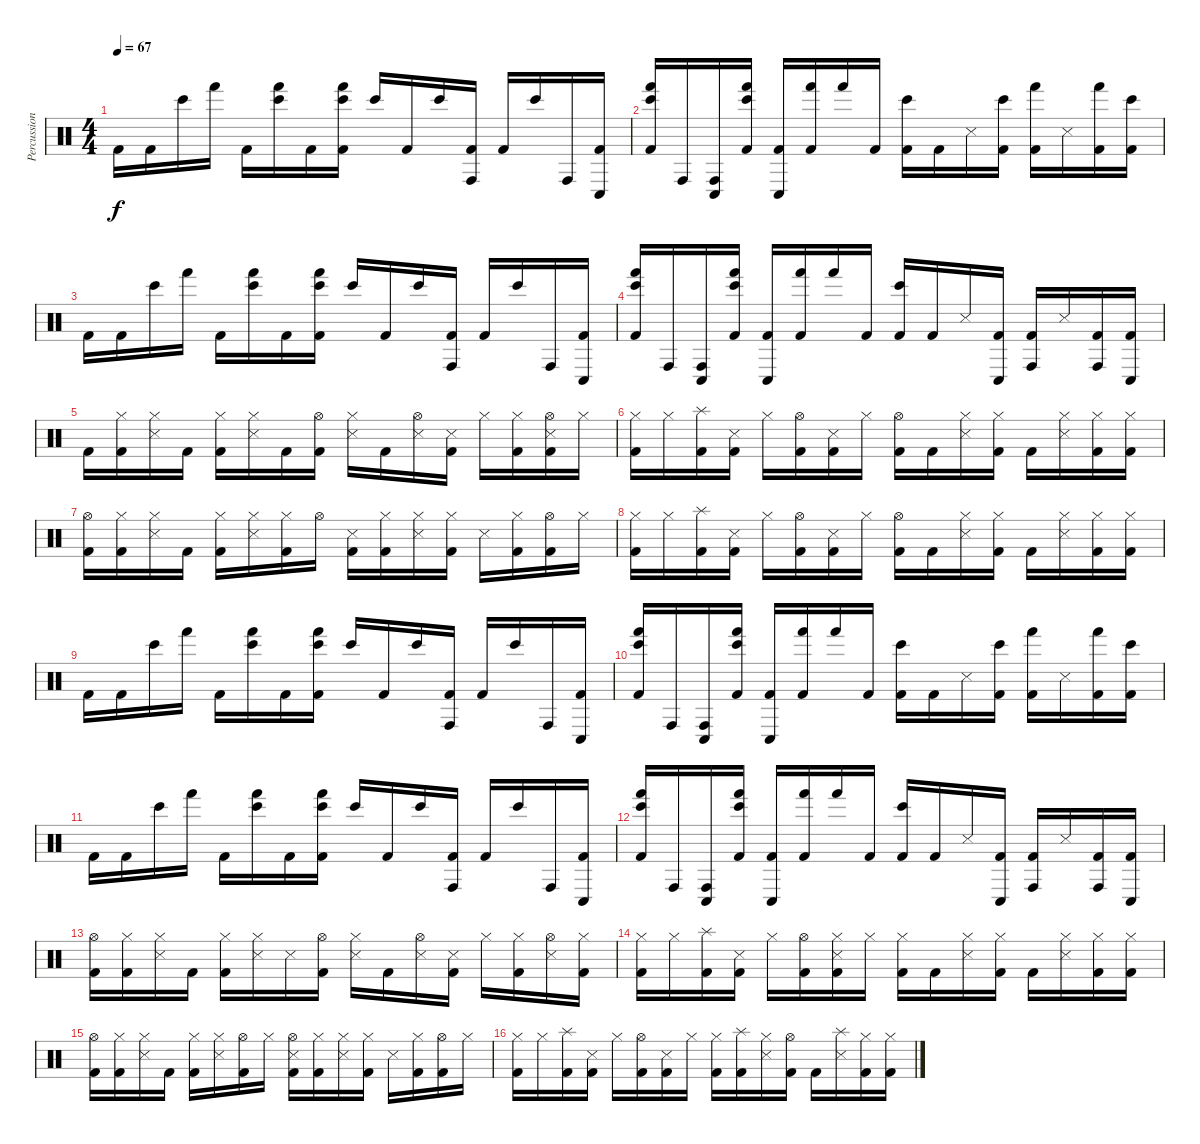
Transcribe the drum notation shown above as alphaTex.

\track ("Percussion" "Percussion") {instrument percussion}
\staff {score}
\articulation defaults
\ts (4 4)
\tempo 67
\clef neutral
\ks c "Kick (hit) 2".16{dy f} "Kick (hit) 2".16 "Bongo High (hit)".16 "Hand (hit)".16 "Kick (hit) 2".16
("Hand (hit)" "Bongo High (hit)").16 "Kick (hit) 2".16 ("Hand (hit)" "Bongo High (hit)" "Kick (hit) 2").16 "Bongo High (hit)".16 "Kick (hit) 2".16 "Bongo High (hit)".16 ("Conga high (hit)" "Kick (hit) 2").16 "Kick (hit) 2".16 "Bongo High (hit)".16 "Conga high (hit)".16 ("Conga low (hit)" "Kick (hit) 2").16 |
("Hand (hit)" "Bongo High (hit)" "Kick (hit) 2").16 "Conga high (hit)".16 ("Conga low (hit)" "Conga high (hit)").16 ("Hand (hit)" "Bongo High (hit)" "Kick (hit) 2").16 ("Conga low (hit)" "Kick (hit) 2").16 ("Hand (hit)" "Kick (hit) 2").16 "Hand (hit)".16 "Kick (hit) 2".16 ("Bongo High (hit)" "Kick (hit) 2").16 "Kick (hit) 2".16 "Snare (side stick) 3".16 ("Bongo High (hit)" "Kick (hit) 2").16 ("Hand (hit)" "Kick (hit) 2").16 "Snare (side stick) 3".16 ("Hand (hit)" "Kick (hit) 2").16 ("Bongo High (hit)" "Kick (hit) 2").16 |
"Kick (hit) 2".16 "Kick (hit) 2".16 "Bongo High (hit)".16 "Hand (hit)".16 "Kick (hit) 2".16 ("Hand (hit)" "Bongo High (hit)").16 "Kick (hit) 2".16 ("Hand (hit)" "Bongo High (hit)" "Kick (hit) 2").16 "Bongo High (hit)".16 "Kick (hit) 2".16 "Bongo High (hit)".16 ("Conga high (hit)" "Kick (hit) 2").16 "Kick (hit) 2".16 "Bongo High (hit)".16 "Conga high (hit)".16 ("Conga low (hit)" "Kick (hit) 2").16 |
("Hand (hit)" "Bongo High (hit)" "Kick (hit) 2").16 "Conga high (hit)".16 ("Conga low (hit)" "Conga high (hit)").16 ("Hand (hit)" "Bongo High (hit)" "Kick (hit) 2").16 ("Conga low (hit)" "Kick (hit) 2").16 ("Hand (hit)" "Kick (hit) 2").16 "Hand (hit)".16 "Kick (hit) 2".16 ("Bongo High (hit)" "Kick (hit) 2").16 "Kick (hit) 2".16 "Snare (side stick) 3".16 ("Conga low (hit)" "Kick (hit) 2").16 ("Conga high (hit)" "Kick (hit) 2").16 "Snare (side stick) 3".16 ("Conga high (hit)" "Kick (hit) 2").16 ("Conga low (hit)" "Kick (hit) 2").16 |
"Kick (hit) 2".16 ("Hi-Hat (closed)" "Kick (hit) 2").16 ("Hi-Hat (closed)" "Snare (side stick) 3").16 "Kick (hit) 2".16 ("Hi-Hat (closed)" "Kick (hit) 2").16 ("Hi-Hat (closed)" "Snare (side stick) 3").16 "Kick (hit) 2".16 ("Hi-Hat (open)" "Kick (hit) 2").16 ("Hi-Hat (closed)" "Snare (side stick) 3").16 "Kick (hit) 2".16 ("Hi-Hat (open)" "Snare (side stick) 3").16 ("Snare (side stick) 3" "Kick (hit) 2").16 "Hi-Hat (closed)".16 ("Hi-Hat (closed)" "Kick (hit) 2").16 ("Hi-Hat (open)" "Snare (side stick) 3" "Kick (hit) 2").16 "Hi-Hat (closed)".16 |
("Hi-Hat (closed)" "Kick (hit) 2").16 "Hi-Hat (closed)".16 ("Splash (hit)" "Kick (hit) 2").16 ("Snare (side stick) 3" "Kick (hit) 2").16 "Hi-Hat (closed)".16 ("Hi-Hat (open)" "Kick (hit) 2").16 ("Snare (side stick) 3" "Kick (hit) 2").16 "Hi-Hat (closed)".16 ("Hi-Hat (open)" "Kick (hit) 2").16 "Kick (hit) 2".16 ("Hi-Hat (closed)" "Snare (side stick) 3").16 ("Hi-Hat (closed)" "Kick (hit) 2").16 "Kick (hit) 2".16 ("Hi-Hat (closed)" "Snare (side stick) 3").16 ("Hi-Hat (closed)" "Kick (hit) 2").16 ("Hi-Hat (closed)" "Kick (hit) 2").16 |
("Hi-Hat (open)" "Kick (hit) 2").16 ("Hi-Hat (closed)" "Kick (hit) 2").16 ("Hi-Hat (closed)" "Snare (side stick) 3").16 "Kick (hit) 2".16 ("Hi-Hat (closed)" "Kick (hit) 2").16 ("Hi-Hat (closed)" "Snare (side stick) 3").16 ("Hi-Hat (closed)" "Kick (hit) 2").16 "Hi-Hat (open)".16 ("Snare (side stick) 3" "Kick (hit) 2").16 ("Hi-Hat (closed)" "Kick (hit) 2").16 ("Hi-Hat (closed)" "Snare (side stick) 3").16 ("Hi-Hat (closed)" "Kick (hit) 2").16 "Snare (side stick) 3".16 ("Hi-Hat (closed)" "Kick (hit) 2").16 ("Hi-Hat (open)" "Kick (hit) 2").16 "Hi-Hat (closed)".16 |
("Hi-Hat (closed)" "Kick (hit) 2").16 "Hi-Hat (closed)".16 ("Splash (hit)" "Kick (hit) 2").16 ("Snare (side stick) 3" "Kick (hit) 2").16 "Hi-Hat (closed)".16 ("Hi-Hat (open)" "Kick (hit) 2").16 ("Snare (side stick) 3" "Kick (hit) 2").16 "Hi-Hat (closed)".16 ("Hi-Hat (open)" "Kick (hit) 2").16 "Kick (hit) 2".16 ("Hi-Hat (closed)" "Snare (side stick) 3").16 ("Hi-Hat (closed)" "Kick (hit) 2").16 "Kick (hit) 2".16 ("Hi-Hat (closed)" "Snare (side stick) 3").16 ("Hi-Hat (closed)" "Kick (hit) 2").16 ("Hi-Hat (closed)" "Kick (hit) 2").16 |
"Kick (hit) 2".16 "Kick (hit) 2".16 "Bongo High (hit)".16 "Hand (hit)".16 "Kick (hit) 2".16 ("Hand (hit)" "Bongo High (hit)").16 "Kick (hit) 2".16 ("Hand (hit)" "Bongo High (hit)" "Kick (hit) 2").16 "Bongo High (hit)".16 "Kick (hit) 2".16 "Bongo High (hit)".16 ("Conga high (hit)" "Kick (hit) 2").16 "Kick (hit) 2".16 "Bongo High (hit)".16 "Conga high (hit)".16 ("Conga low (hit)" "Kick (hit) 2").16 |
("Hand (hit)" "Bongo High (hit)" "Kick (hit) 2").16 "Conga high (hit)".16 ("Conga low (hit)" "Conga high (hit)").16 ("Hand (hit)" "Bongo High (hit)" "Kick (hit) 2").16 ("Conga low (hit)" "Kick (hit) 2").16 ("Hand (hit)" "Kick (hit) 2").16 "Hand (hit)".16 "Kick (hit) 2".16 ("Bongo High (hit)" "Kick (hit) 2").16 "Kick (hit) 2".16 "Snare (side stick) 3".16 ("Bongo High (hit)" "Kick (hit) 2").16 ("Hand (hit)" "Kick (hit) 2").16 "Snare (side stick) 3".16 ("Hand (hit)" "Kick (hit) 2").16 ("Bongo High (hit)" "Kick (hit) 2").16 |
"Kick (hit) 2".16 "Kick (hit) 2".16 "Bongo High (hit)".16 "Hand (hit)".16 "Kick (hit) 2".16 ("Hand (hit)" "Bongo High (hit)").16 "Kick (hit) 2".16 ("Hand (hit)" "Bongo High (hit)" "Kick (hit) 2").16 "Bongo High (hit)".16 "Kick (hit) 2".16 "Bongo High (hit)".16 ("Conga high (hit)" "Kick (hit) 2").16 "Kick (hit) 2".16 "Bongo High (hit)".16 "Conga high (hit)".16 ("Conga low (hit)" "Kick (hit) 2").16 |
("Hand (hit)" "Bongo High (hit)" "Kick (hit) 2").16 "Conga high (hit)".16 ("Conga low (hit)" "Conga high (hit)").16 ("Hand (hit)" "Bongo High (hit)" "Kick (hit) 2").16 ("Conga low (hit)" "Kick (hit) 2").16 ("Hand (hit)" "Kick (hit) 2").16 "Hand (hit)".16 "Kick (hit) 2".16 ("Bongo High (hit)" "Kick (hit) 2").16 "Kick (hit) 2".16 "Snare (side stick) 3".16 ("Conga low (hit)" "Kick (hit) 2").16 ("Conga high (hit)" "Kick (hit) 2").16 "Snare (side stick) 3".16 ("Conga high (hit)" "Kick (hit) 2").16 ("Conga low (hit)" "Kick (hit) 2").16 |
("Hi-Hat (open)" "Kick (hit) 2").16 ("Hi-Hat (closed)" "Kick (hit) 2").16 ("Hi-Hat (closed)" "Snare (side stick) 3").16 "Kick (hit) 2".16 ("Hi-Hat (closed)" "Kick (hit) 2").16 ("Hi-Hat (closed)" "Snare (side stick) 3").16 "Snare (side stick) 3".16 ("Hi-Hat (open)" "Kick (hit) 2").16 ("Hi-Hat (closed)" "Snare (side stick) 3").16 "Kick (hit) 2".16 ("Hi-Hat (open)" "Snare (side stick) 3").16 ("Snare (side stick) 3" "Kick (hit) 2").16 "Hi-Hat (closed)".16 ("Hi-Hat (closed)" "Kick (hit) 2").16 ("Hi-Hat (open)" "Snare (side stick) 3").16 ("Hi-Hat (closed)" "Kick (hit) 2").16 |
("Hi-Hat (closed)" "Kick (hit) 2").16 "Hi-Hat (closed)".16 ("Splash (hit)" "Kick (hit) 2").16 ("Snare (side stick) 3" "Kick (hit) 2").16 "Hi-Hat (closed)".16 ("Hi-Hat (open)" "Kick (hit) 2").16 ("Hi-Hat (closed)" "Snare (side stick) 3" "Kick (hit) 2").16 "Hi-Hat (closed)".16 ("Hi-Hat (closed)" "Kick (hit) 2").16 "Kick (hit) 2".16 ("Hi-Hat (closed)" "Snare (side stick) 3").16 ("Hi-Hat (closed)" "Kick (hit) 2").16 "Kick (hit) 2".16 ("Hi-Hat (closed)" "Snare (side stick) 3").16 ("Hi-Hat (closed)" "Kick (hit) 2").16 ("Hi-Hat (closed)" "Kick (hit) 2").16 |
("Hi-Hat (open)" "Kick (hit) 2").16 ("Hi-Hat (closed)" "Kick (hit) 2").16 ("Hi-Hat (closed)" "Snare (side stick) 3").16 "Kick (hit) 2".16 ("Hi-Hat (closed)" "Kick (hit) 2").16 ("Hi-Hat (closed)" "Snare (side stick) 3").16 ("Hi-Hat (open)" "Kick (hit) 2").16 "Hi-Hat (closed)".16 ("Hi-Hat (open)" "Snare (side stick) 3" "Kick (hit) 2").16 ("Hi-Hat (closed)" "Kick (hit) 2").16 ("Hi-Hat (closed)" "Snare (side stick) 3").16 ("Hi-Hat (closed)" "Kick (hit) 2").16 "Snare (side stick) 3".16 ("Hi-Hat (closed)" "Kick (hit) 2").16 ("Hi-Hat (open)" "Kick (hit) 2").16 "Hi-Hat (closed)".16 |
("Hi-Hat (closed)" "Kick (hit) 2").16 "Hi-Hat (closed)".16 ("Splash (hit)" "Kick (hit) 2").16 ("Snare (side stick) 3" "Kick (hit) 2").16 "Hi-Hat (closed)".16 ("Hi-Hat (open)" "Kick (hit) 2").16 ("Snare (side stick) 3" "Kick (hit) 2").16 "Hi-Hat (closed)".16 ("Hi-Hat (closed)" "Kick (hit) 2").16 ("Splash (hit)" "Kick (hit) 2").16 ("Hi-Hat (closed)" "Snare (side stick) 3").16 ("Hi-Hat (open)" "Kick (hit) 2").16 "Kick (hit) 2".16 ("Splash (hit)" "Snare (side stick) 3").16 ("Hi-Hat (closed)" "Kick (hit) 2").16 ("Hi-Hat (closed)" "Kick (hit) 2").16
